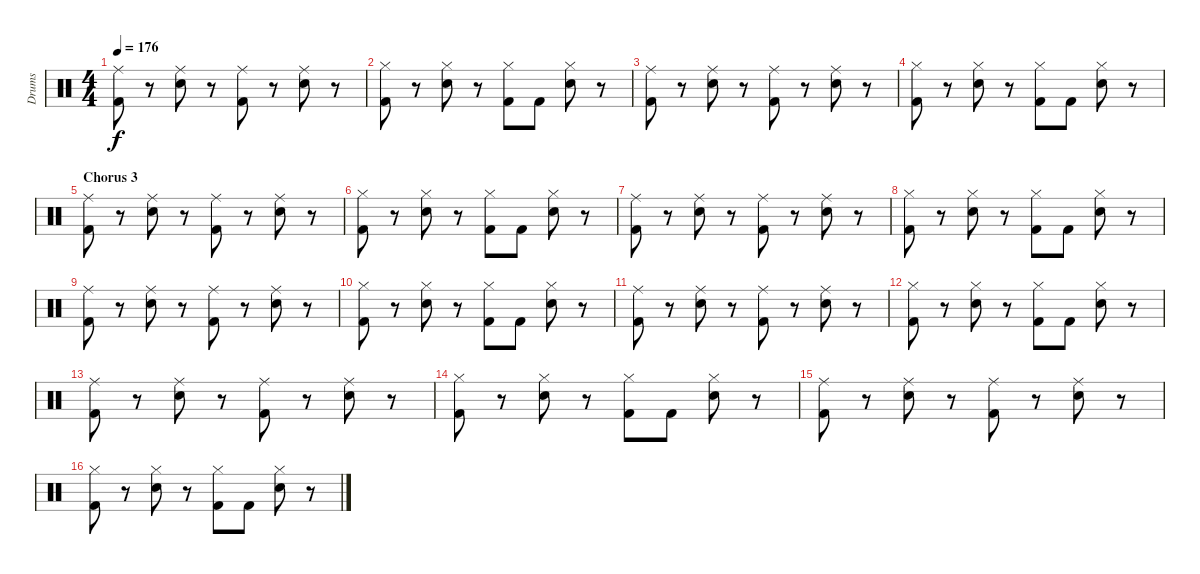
\track ("Drums" "Drums") {instrument percussion}
\staff {score}
\articulation defaults
\ts (4 4)
\tempo 176
\clef neutral
\ks c
("Ride (middle)" "Kick (hit) 2").8{dy f} r.8 ("Ride (middle)" "Electric Snare (hit)").8 r.8 ("Ride (middle)" "Kick (hit) 2").8 r.8 ("Ride (middle)" "Electric Snare (hit)").8 r.8 |
("Hi-Hat (closed)" "Kick (hit) 2").8 r.8 ("Hi-Hat (closed)" "Electric Snare (hit)").8 r.8 ("Hi-Hat (closed)" "Kick (hit) 2").8 "Kick (hit) 2".8 ("Hi-Hat (closed)" "Electric Snare (hit)").8 r.8 |
("Ride (middle)" "Kick (hit) 2").8 r.8 ("Ride (middle)" "Electric Snare (hit)").8 r.8 ("Ride (middle)" "Kick (hit) 2").8 r.8 ("Ride (middle)" "Electric Snare (hit)").8 r.8 |
("Hi-Hat (closed)" "Kick (hit) 2").8 r.8 ("Hi-Hat (closed)" "Electric Snare (hit)").8 r.8 ("Hi-Hat (closed)" "Kick (hit) 2").8 "Kick (hit) 2".8 ("Hi-Hat (closed)" "Electric Snare (hit)").8 r.8 |
\section ("" "Chorus 3")
("Ride (middle)" "Kick (hit) 2").8 r.8 ("Ride (middle)" "Electric Snare (hit)").8 r.8 ("Ride (middle)" "Kick (hit) 2").8 r.8 ("Ride (middle)" "Electric Snare (hit)").8 r.8 |
("Hi-Hat (closed)" "Kick (hit) 2").8 r.8 ("Hi-Hat (closed)" "Electric Snare (hit)").8 r.8 ("Hi-Hat (closed)" "Kick (hit) 2").8 "Kick (hit) 2".8 ("Hi-Hat (closed)" "Electric Snare (hit)").8 r.8 |
("Ride (middle)" "Kick (hit) 2").8 r.8 ("Ride (middle)" "Electric Snare (hit)").8 r.8 ("Ride (middle)" "Kick (hit) 2").8 r.8 ("Ride (middle)" "Electric Snare (hit)").8 r.8 |
("Hi-Hat (closed)" "Kick (hit) 2").8 r.8 ("Hi-Hat (closed)" "Electric Snare (hit)").8 r.8 ("Hi-Hat (closed)" "Kick (hit) 2").8 "Kick (hit) 2".8 ("Hi-Hat (closed)" "Electric Snare (hit)").8 r.8 |
("Ride (middle)" "Kick (hit) 2").8 r.8 ("Ride (middle)" "Electric Snare (hit)").8 r.8 ("Ride (middle)" "Kick (hit) 2").8 r.8 ("Ride (middle)" "Electric Snare (hit)").8 r.8 |
("Hi-Hat (closed)" "Kick (hit) 2").8 r.8 ("Hi-Hat (closed)" "Electric Snare (hit)").8 r.8 ("Hi-Hat (closed)" "Kick (hit) 2").8 "Kick (hit) 2".8 ("Hi-Hat (closed)" "Electric Snare (hit)").8 r.8 |
("Ride (middle)" "Kick (hit) 2").8 r.8 ("Ride (middle)" "Electric Snare (hit)").8 r.8 ("Ride (middle)" "Kick (hit) 2").8 r.8 ("Ride (middle)" "Electric Snare (hit)").8 r.8 |
("Hi-Hat (closed)" "Kick (hit) 2").8 r.8 ("Hi-Hat (closed)" "Electric Snare (hit)").8 r.8 ("Hi-Hat (closed)" "Kick (hit) 2").8 "Kick (hit) 2".8 ("Hi-Hat (closed)" "Electric Snare (hit)").8 r.8 |
("Ride (middle)" "Kick (hit) 2").8 r.8 ("Ride (middle)" "Electric Snare (hit)").8 r.8 ("Ride (middle)" "Kick (hit) 2").8 r.8 ("Ride (middle)" "Electric Snare (hit)").8 r.8 |
("Hi-Hat (closed)" "Kick (hit) 2").8 r.8 ("Hi-Hat (closed)" "Electric Snare (hit)").8 r.8 ("Hi-Hat (closed)" "Kick (hit) 2").8 "Kick (hit) 2".8 ("Hi-Hat (closed)" "Electric Snare (hit)").8 r.8 |
("Ride (middle)" "Kick (hit) 2").8 r.8 ("Ride (middle)" "Electric Snare (hit)").8 r.8 ("Ride (middle)" "Kick (hit) 2").8 r.8 ("Ride (middle)" "Electric Snare (hit)").8 r.8 |
("Hi-Hat (closed)" "Kick (hit) 2").8 r.8 ("Hi-Hat (closed)" "Electric Snare (hit)").8 r.8 ("Hi-Hat (closed)" "Kick (hit) 2").8 "Kick (hit) 2".8 ("Hi-Hat (closed)" "Electric Snare (hit)").8 r.8
